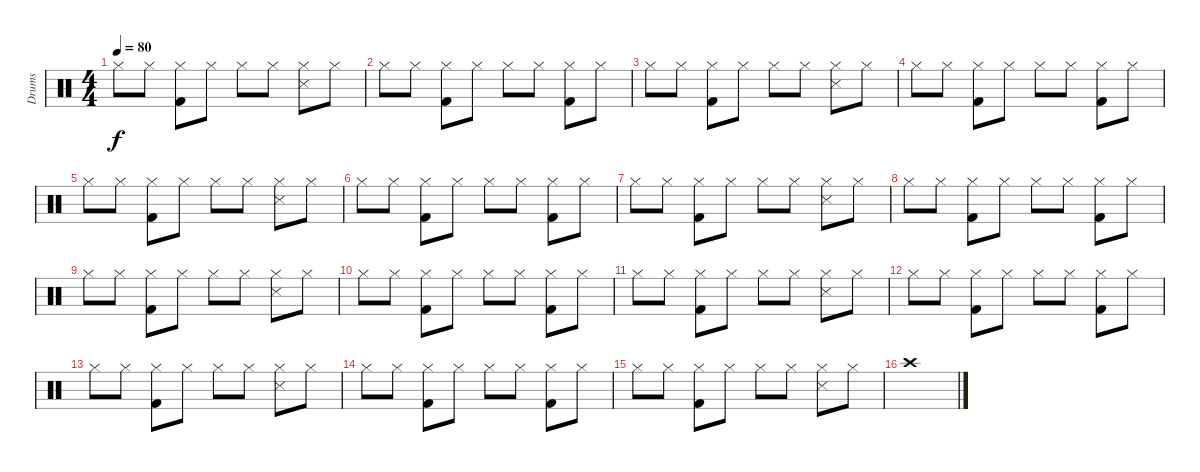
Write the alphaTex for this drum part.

\track ("Drums" "Drums") {instrument percussion}
\staff {score}
\articulation defaults
\ts (4 4)
\tempo 80
\clef neutral
\ks c "Hi-Hat (closed)".8{dy f} "Hi-Hat (closed)".8
("Hi-Hat (closed)" "Kick (hit) 2").8 "Hi-Hat (closed)".8 "Hi-Hat (closed)".8 "Hi-Hat (closed)".8 ("Hi-Hat (closed)" "Snare (side stick) 3").8 "Hi-Hat (closed)".8 |
"Hi-Hat (closed)".8 "Hi-Hat (closed)".8 ("Hi-Hat (closed)" "Kick (hit) 2").8 "Hi-Hat (closed)".8 "Hi-Hat (closed)".8 "Hi-Hat (closed)".8 ("Hi-Hat (closed)" "Kick (hit) 2").8 "Hi-Hat (closed)".8 |
"Hi-Hat (closed)".8 "Hi-Hat (closed)".8 ("Hi-Hat (closed)" "Kick (hit) 2").8 "Hi-Hat (closed)".8 "Hi-Hat (closed)".8 "Hi-Hat (closed)".8 ("Hi-Hat (closed)" "Snare (side stick) 3").8 "Hi-Hat (closed)".8 |
"Hi-Hat (closed)".8 "Hi-Hat (closed)".8 ("Hi-Hat (closed)" "Kick (hit) 2").8 "Hi-Hat (closed)".8 "Hi-Hat (closed)".8 "Hi-Hat (closed)".8 ("Hi-Hat (closed)" "Kick (hit) 2").8 "Hi-Hat (closed)".8 |
"Hi-Hat (closed)".8 "Hi-Hat (closed)".8 ("Hi-Hat (closed)" "Kick (hit) 2").8 "Hi-Hat (closed)".8 "Hi-Hat (closed)".8 "Hi-Hat (closed)".8 ("Hi-Hat (closed)" "Snare (side stick) 3").8 "Hi-Hat (closed)".8 |
"Hi-Hat (closed)".8 "Hi-Hat (closed)".8 ("Hi-Hat (closed)" "Kick (hit) 2").8 "Hi-Hat (closed)".8 "Hi-Hat (closed)".8 "Hi-Hat (closed)".8 ("Hi-Hat (closed)" "Kick (hit) 2").8 "Hi-Hat (closed)".8 |
"Hi-Hat (closed)".8 "Hi-Hat (closed)".8 ("Hi-Hat (closed)" "Kick (hit) 2").8 "Hi-Hat (closed)".8 "Hi-Hat (closed)".8 "Hi-Hat (closed)".8 ("Hi-Hat (closed)" "Snare (side stick) 3").8 "Hi-Hat (closed)".8 |
"Hi-Hat (closed)".8 "Hi-Hat (closed)".8 ("Hi-Hat (closed)" "Kick (hit) 2").8 "Hi-Hat (closed)".8 "Hi-Hat (closed)".8 "Hi-Hat (closed)".8 ("Hi-Hat (closed)" "Kick (hit) 2").8 "Hi-Hat (closed)".8 |
"Hi-Hat (closed)".8 "Hi-Hat (closed)".8 ("Hi-Hat (closed)" "Kick (hit) 2").8 "Hi-Hat (closed)".8 "Hi-Hat (closed)".8 "Hi-Hat (closed)".8 ("Hi-Hat (closed)" "Snare (side stick) 3").8 "Hi-Hat (closed)".8 |
"Hi-Hat (closed)".8 "Hi-Hat (closed)".8 ("Hi-Hat (closed)" "Kick (hit) 2").8 "Hi-Hat (closed)".8 "Hi-Hat (closed)".8 "Hi-Hat (closed)".8 ("Hi-Hat (closed)" "Kick (hit) 2").8 "Hi-Hat (closed)".8 |
"Hi-Hat (closed)".8 "Hi-Hat (closed)".8 ("Hi-Hat (closed)" "Kick (hit) 2").8 "Hi-Hat (closed)".8 "Hi-Hat (closed)".8 "Hi-Hat (closed)".8 ("Hi-Hat (closed)" "Snare (side stick) 3").8 "Hi-Hat (closed)".8 |
"Hi-Hat (closed)".8 "Hi-Hat (closed)".8 ("Hi-Hat (closed)" "Kick (hit) 2").8 "Hi-Hat (closed)".8 "Hi-Hat (closed)".8 "Hi-Hat (closed)".8 ("Hi-Hat (closed)" "Kick (hit) 2").8 "Hi-Hat (closed)".8 |
"Hi-Hat (closed)".8 "Hi-Hat (closed)".8 ("Hi-Hat (closed)" "Kick (hit) 2").8 "Hi-Hat (closed)".8 "Hi-Hat (closed)".8 "Hi-Hat (closed)".8 ("Hi-Hat (closed)" "Snare (side stick) 3").8 "Hi-Hat (closed)".8 |
"Hi-Hat (closed)".8 "Hi-Hat (closed)".8 ("Hi-Hat (closed)" "Kick (hit) 2").8 "Hi-Hat (closed)".8 "Hi-Hat (closed)".8 "Hi-Hat (closed)".8 ("Hi-Hat (closed)" "Kick (hit) 2").8 "Hi-Hat (closed)".8 |
"Hi-Hat (closed)".8 "Hi-Hat (closed)".8 ("Hi-Hat (closed)" "Kick (hit) 2").8 "Hi-Hat (closed)".8 "Hi-Hat (closed)".8 "Hi-Hat (closed)".8 ("Hi-Hat (closed)" "Snare (side stick) 3").8 "Hi-Hat (closed)".8 |
"Crash high (hit)".1
